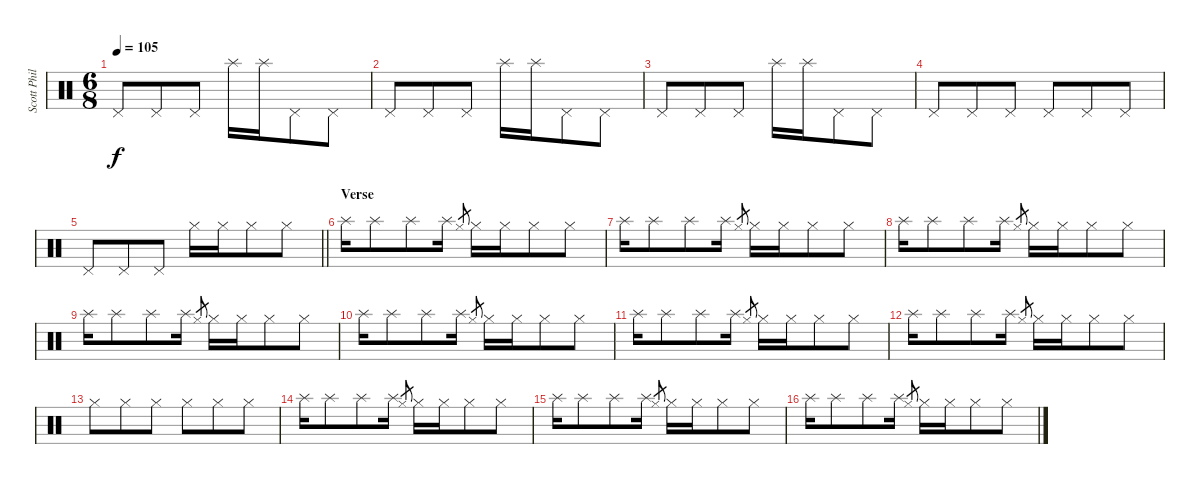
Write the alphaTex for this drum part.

\track ("Scott Phillips (Drums)" "Scott Phil") {instrument percussion}
\staff {score}
\articulation defaults
\ts (6 8)
\tempo 105
\clef neutral
\ks c "Pedal Hi-Hat (hit)".8{dy f} "Pedal Hi-Hat (hit)".8 "Pedal Hi-Hat (hit)".8 "Splash (hit)".16 "Splash (hit)".16 "Pedal Hi-Hat (hit)".8 "Pedal Hi-Hat (hit)".8
|
"Pedal Hi-Hat (hit)".8 "Pedal Hi-Hat (hit)".8 "Pedal Hi-Hat (hit)".8 "Splash (hit)".16 "Splash (hit)".16 "Pedal Hi-Hat (hit)".8 "Pedal Hi-Hat (hit)".8 |
"Pedal Hi-Hat (hit)".8 "Pedal Hi-Hat (hit)".8 "Pedal Hi-Hat (hit)".8 "Splash (hit)".16 "Splash (hit)".16 "Pedal Hi-Hat (hit)".8 "Pedal Hi-Hat (hit)".8 |
"Pedal Hi-Hat (hit)".8 "Pedal Hi-Hat (hit)".8 "Pedal Hi-Hat (hit)".8 "Pedal Hi-Hat (hit)".8 "Pedal Hi-Hat (hit)".8 "Pedal Hi-Hat (hit)".8 |
\barLineRight lightlight "Pedal Hi-Hat (hit)".8 "Pedal Hi-Hat (hit)".8 "Pedal Hi-Hat (hit)".8 "Hi-Hat (closed)".16 "Hi-Hat (closed)".16 "Hi-Hat (closed)".8 "Hi-Hat (closed)".8
|
\section ("" "Verse")
"Splash (hit)".16 "Splash (hit)".8 "Splash (hit)".8 "Splash (hit)".16 "Hi-Hat (closed)".8{gr} "Hi-Hat (closed)".16 "Hi-Hat (closed)".16 "Hi-Hat (closed)".8 "Hi-Hat (closed)".8 |
"Splash (hit)".16 "Splash (hit)".8 "Splash (hit)".8 "Splash (hit)".16 "Hi-Hat (closed)".8{gr} "Hi-Hat (closed)".16 "Hi-Hat (closed)".16 "Hi-Hat (closed)".8 "Hi-Hat (closed)".8 |
"Splash (hit)".16 "Splash (hit)".8 "Splash (hit)".8 "Splash (hit)".16 "Hi-Hat (closed)".8{gr} "Hi-Hat (closed)".16 "Hi-Hat (closed)".16 "Hi-Hat (closed)".8 "Hi-Hat (closed)".8 |
"Splash (hit)".16 "Splash (hit)".8 "Splash (hit)".8 "Splash (hit)".16 "Hi-Hat (closed)".8{gr} "Hi-Hat (closed)".16 "Hi-Hat (closed)".16 "Hi-Hat (closed)".8 "Hi-Hat (closed)".8 |
"Splash (hit)".16 "Splash (hit)".8 "Splash (hit)".8 "Splash (hit)".16 "Hi-Hat (closed)".8{gr} "Hi-Hat (closed)".16 "Hi-Hat (closed)".16 "Hi-Hat (closed)".8 "Hi-Hat (closed)".8 |
"Splash (hit)".16 "Splash (hit)".8 "Splash (hit)".8 "Splash (hit)".16 "Hi-Hat (closed)".8{gr} "Hi-Hat (closed)".16 "Hi-Hat (closed)".16 "Hi-Hat (closed)".8 "Hi-Hat (closed)".8 |
"Splash (hit)".16 "Splash (hit)".8 "Splash (hit)".8 "Splash (hit)".16 "Hi-Hat (closed)".8{gr} "Hi-Hat (closed)".16 "Hi-Hat (closed)".16 "Hi-Hat (closed)".8 "Hi-Hat (closed)".8 |
"Hi-Hat (closed)".8 "Hi-Hat (closed)".8 "Hi-Hat (closed)".8 "Hi-Hat (closed)".8 "Hi-Hat (closed)".8 "Hi-Hat (closed)".8 |
"Splash (hit)".16 "Splash (hit)".8 "Splash (hit)".8 "Splash (hit)".16 "Hi-Hat (closed)".8{gr} "Hi-Hat (closed)".16 "Hi-Hat (closed)".16 "Hi-Hat (closed)".8 "Hi-Hat (closed)".8 |
"Splash (hit)".16 "Splash (hit)".8 "Splash (hit)".8 "Splash (hit)".16 "Hi-Hat (closed)".8{gr} "Hi-Hat (closed)".16 "Hi-Hat (closed)".16 "Hi-Hat (closed)".8 "Hi-Hat (closed)".8 |
"Splash (hit)".16 "Splash (hit)".8 "Splash (hit)".8 "Splash (hit)".16 "Hi-Hat (closed)".8{gr} "Hi-Hat (closed)".16 "Hi-Hat (closed)".16 "Hi-Hat (closed)".8 "Hi-Hat (closed)".8
